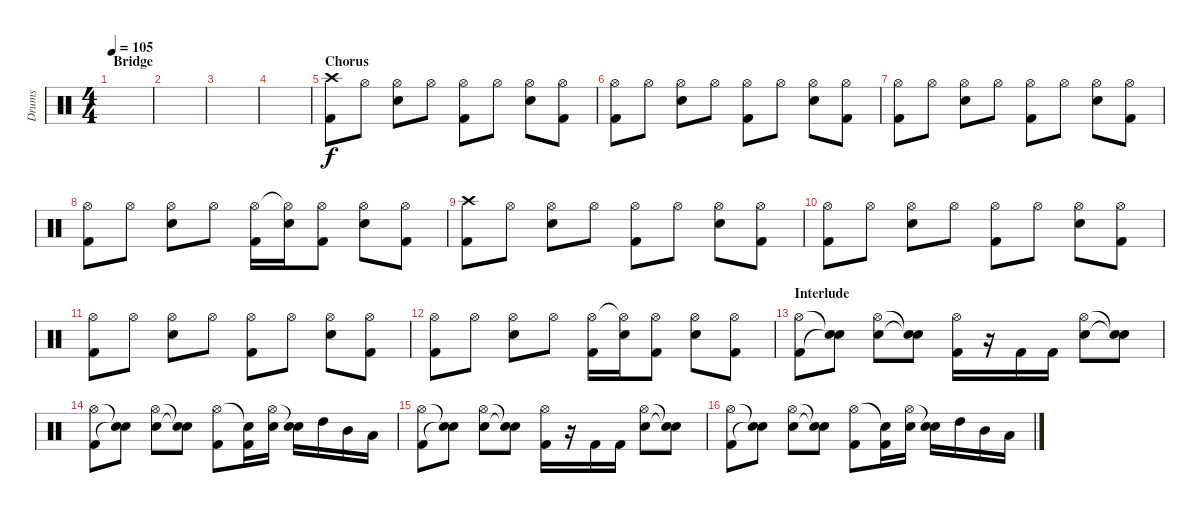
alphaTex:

\track ("Drums" "Drums") {instrument percussion}
\staff {score}
\articulation defaults
\ts (4 4)
\section ("" "Bridge")
\tempo 105
\clef neutral
\ks c
|
|
|
|
\section ("" "Chorus")
("Crash high (hit)" "Kick (hit) 2").8 "Hi-Hat (open)".8 ("Hi-Hat (open)" "Electric Snare (hit)").8 "Hi-Hat (open)".8 ("Hi-Hat (open)" "Kick (hit) 2").8 "Hi-Hat (open)".8 ("Hi-Hat (open)" "Electric Snare (hit)").8 ("Hi-Hat (open)" "Kick (hit) 2").8 |
("Hi-Hat (open)" "Kick (hit) 2").8 "Hi-Hat (open)".8 ("Hi-Hat (open)" "Electric Snare (hit)").8 "Hi-Hat (open)".8 ("Hi-Hat (open)" "Kick (hit) 2").8 "Hi-Hat (open)".8 ("Hi-Hat (open)" "Electric Snare (hit)").8 ("Hi-Hat (open)" "Kick (hit) 2").8 |
("Hi-Hat (open)" "Kick (hit) 2").8 "Hi-Hat (open)".8 ("Hi-Hat (open)" "Electric Snare (hit)").8 "Hi-Hat (open)".8 ("Hi-Hat (open)" "Kick (hit) 2").8 "Hi-Hat (open)".8 ("Hi-Hat (open)" "Electric Snare (hit)").8 ("Hi-Hat (open)" "Kick (hit) 2").8 |
("Hi-Hat (open)" "Kick (hit) 2").8 "Hi-Hat (open)".8 ("Hi-Hat (open)" "Electric Snare (hit)").8 "Hi-Hat (open)".8 ("Hi-Hat (open)" "Kick (hit) 2").16 ("Hi-Hat (open)"{t} "Electric Snare (hit)").16 ("Hi-Hat (open)" "Kick (hit) 2").8 ("Hi-Hat (open)" "Electric Snare (hit)").8 ("Hi-Hat (open)" "Kick (hit) 2").8 |
("Crash high (hit)" "Kick (hit) 2").8 "Hi-Hat (open)".8 ("Hi-Hat (open)" "Electric Snare (hit)").8 "Hi-Hat (open)".8 ("Hi-Hat (open)" "Kick (hit) 2").8 "Hi-Hat (open)".8 ("Hi-Hat (open)" "Electric Snare (hit)").8 ("Hi-Hat (open)" "Kick (hit) 2").8 |
("Hi-Hat (open)" "Kick (hit) 2").8 "Hi-Hat (open)".8 ("Hi-Hat (open)" "Electric Snare (hit)").8 "Hi-Hat (open)".8 ("Hi-Hat (open)" "Kick (hit) 2").8 "Hi-Hat (open)".8 ("Hi-Hat (open)" "Electric Snare (hit)").8 ("Hi-Hat (open)" "Kick (hit) 2").8 |
("Hi-Hat (open)" "Kick (hit) 2").8 "Hi-Hat (open)".8 ("Hi-Hat (open)" "Electric Snare (hit)").8 "Hi-Hat (open)".8 ("Hi-Hat (open)" "Kick (hit) 2").8 "Hi-Hat (open)".8 ("Hi-Hat (open)" "Electric Snare (hit)").8 ("Hi-Hat (open)" "Kick (hit) 2").8 |
("Hi-Hat (open)" "Kick (hit) 2").8 "Hi-Hat (open)".8 ("Hi-Hat (open)" "Electric Snare (hit)").8 "Hi-Hat (open)".8 ("Hi-Hat (open)" "Kick (hit) 2").16 ("Hi-Hat (open)"{t} "Electric Snare (hit)").16 ("Hi-Hat (open)" "Kick (hit) 2").8 ("Hi-Hat (open)" "Electric Snare (hit)").8 ("Hi-Hat (open)" "Kick (hit) 2").8 |
\section ("" "Interlude ")
("Hi-Hat (open)" "Kick (hit) 2").8 ("Snare (hit)"{t} "Snare (hit)"{t}).8 ("Hi-Hat (open)" "Electric Snare (hit)").8 ("Snare (hit)"{t} "Snare (hit)"{t}).8 ("Hi-Hat (open)" "Kick (hit) 2").16 r.16 "Kick (hit) 2".16 "Kick (hit) 2".16 ("Hi-Hat (open)" "Electric Snare (hit)").8 ("Snare (hit)"{t} "Snare (hit)"{t}).8 |
("Hi-Hat (open)" "Kick (hit) 2").8 ("Snare (hit)"{t} "Snare (hit)"{t}).8 ("Hi-Hat (open)" "Electric Snare (hit)").8 ("Snare (hit)"{t} "Snare (hit)"{t}).8 ("Hi-Hat (open)" "Kick (hit) 2").8 ("Snare (hit)"{t} "Kick (hit) 2").16 ("Hi-Hat (open)" "Electric Snare (hit)").16 ("Snare (hit)"{t} "Electric Snare (hit)").16 "High Tom (hit)".16 "Mid Tom (hit)".16 "Low Tom (hit)".16 |
("Hi-Hat (open)" "Kick (hit) 2").8 ("Snare (hit)"{t} "Snare (hit)"{t}).8 ("Hi-Hat (open)" "Electric Snare (hit)").8 ("Snare (hit)"{t} "Snare (hit)"{t}).8 ("Hi-Hat (open)" "Kick (hit) 2").16 r.16 "Kick (hit) 2".16 "Kick (hit) 2".16 ("Hi-Hat (open)" "Electric Snare (hit)").8 ("Snare (hit)"{t} "Snare (hit)"{t}).8 |
("Hi-Hat (open)" "Kick (hit) 2").8 ("Snare (hit)"{t} "Snare (hit)"{t}).8 ("Hi-Hat (open)" "Electric Snare (hit)").8 ("Snare (hit)"{t} "Snare (hit)"{t}).8 ("Hi-Hat (open)" "Kick (hit) 2").8 ("Snare (hit)"{t} "Kick (hit) 2").16 ("Hi-Hat (open)" "Electric Snare (hit)").16 ("Snare (hit)"{t} "Electric Snare (hit)").16 "High Tom (hit)".16 "Mid Tom (hit)".16 "Low Tom (hit)".16
